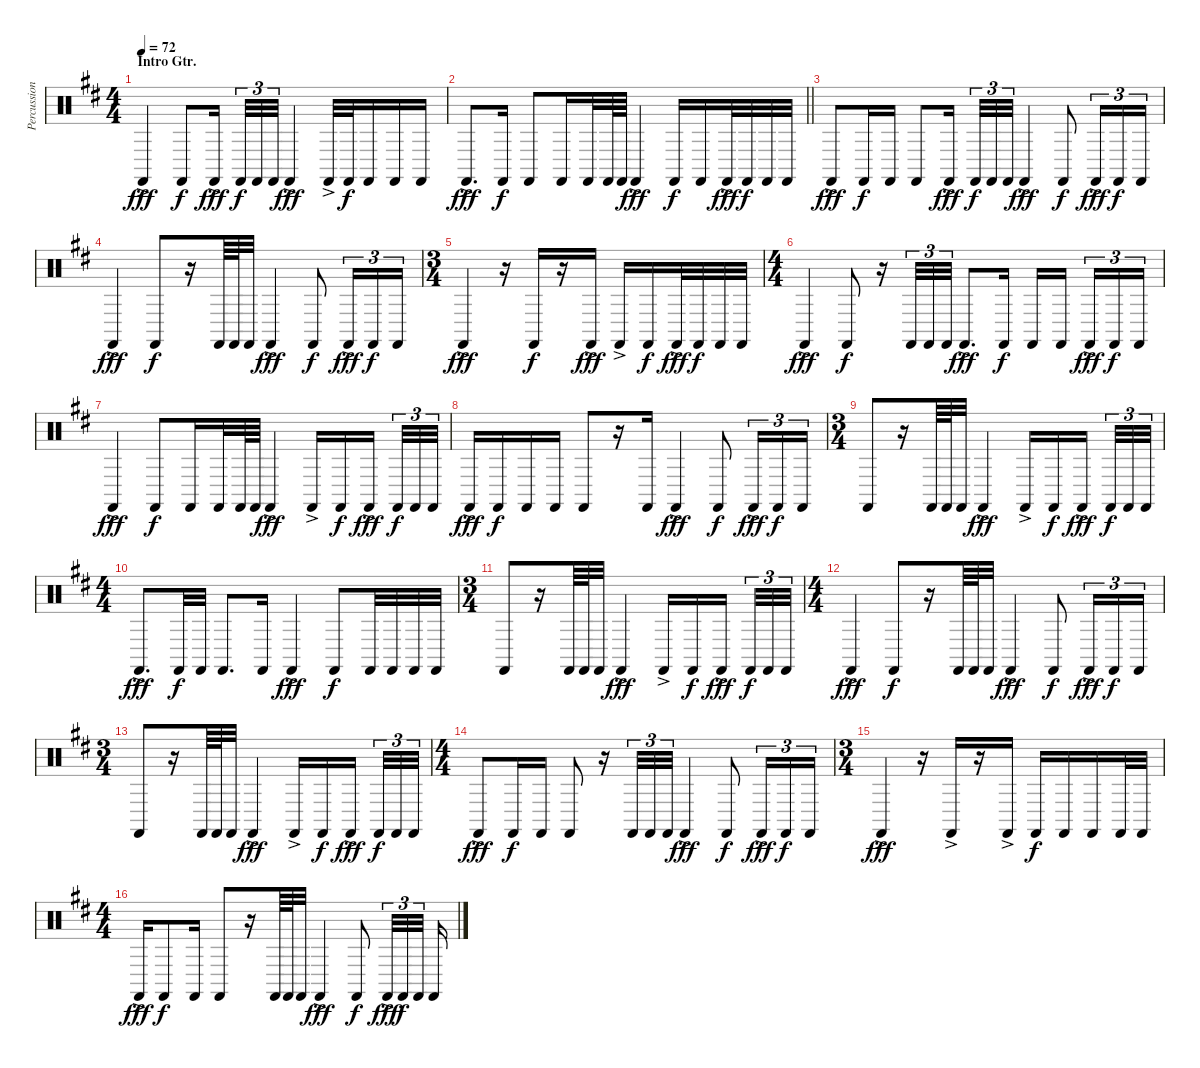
\track ("Percussions" "Percussion") {instrument percussion}
\staff {score}
\articulation defaults
\ts (4 4)
\section ("" "Intro Gtr.")
\tempo 72
\clef neutral
\ks bminor "Castanets (hit)"{ac}.4{dy fff volume 11 balance 8} "Castanets (hit)".8{dy f} "Castanets (hit)"{ac}.16{dy fff} "Castanets (hit)".32{tu (3 2) dy f} "Castanets (hit)".32{tu (3 2)} "Castanets (hit)".32{tu (3 2)} "Castanets (hit)"{ac}.4{dy fff} "Castanets (hit)"{ac}.32 "Castanets (hit)".32{dy f} "Castanets (hit)".16 "Castanets (hit)".16 "Castanets (hit)".16
|
\barLineRight lightlight "Castanets (hit)"{ac}.8{d dy fff} "Castanets (hit)".16{dy f} "Castanets (hit)".8 "Castanets (hit)".16 "Castanets (hit)".32 "Castanets (hit)".64 "Castanets (hit)".64 "Castanets (hit)"{ac}.4{dy fff} "Castanets (hit)".16{dy f} "Castanets (hit)".16 "Castanets (hit)"{ac}.32{dy fff} "Castanets (hit)".32{dy f} "Castanets (hit)".32 "Castanets (hit)".32
|
"Castanets (hit)"{ac}.8{dy fff} "Castanets (hit)".16{dy f} "Castanets (hit)".16 "Castanets (hit)".8 "Castanets (hit)"{ac}.16{dy fff} "Castanets (hit)".32{tu (3 2) dy f} "Castanets (hit)".32{tu (3 2)} "Castanets (hit)".32{tu (3 2)} "Castanets (hit)"{ac}.4{dy fff} "Castanets (hit)".8{dy f} "Castanets (hit)"{ac}.16{tu (3 2) dy fff} "Castanets (hit)".16{tu (3 2) dy f} "Castanets (hit)".16{tu (3 2)} |
"Castanets (hit)"{ac}.4{dy fff} "Castanets (hit)".8{dy f} r.16 "Castanets (hit)".64 "Castanets (hit)".64 "Castanets (hit)".32 "Castanets (hit)"{ac}.4{dy fff} "Castanets (hit)".8{dy f} "Castanets (hit)"{ac}.16{tu (3 2) dy fff} "Castanets (hit)".16{tu (3 2) dy f} "Castanets (hit)".16{tu (3 2)} |
\ts (3 4)
"Castanets (hit)"{ac}.4{dy fff} r.16 "Castanets (hit)".16{dy f} r.16 "Castanets (hit)"{ac}.16{dy fff} "Castanets (hit)"{ac}.16 "Castanets (hit)".16{dy f} "Castanets (hit)"{ac}.32{dy fff} "Castanets (hit)".32{dy f} "Castanets (hit)".32 "Castanets (hit)".32 |
\ts (4 4)
"Castanets (hit)"{ac}.4{dy fff} "Castanets (hit)".8{dy f} r.16 "Castanets (hit)".32{tu (3 2)} "Castanets (hit)".32{tu (3 2)} "Castanets (hit)".32{tu (3 2)} "Castanets (hit)"{ac}.8{d dy fff} "Castanets (hit)".16{dy f} "Castanets (hit)".16 "Castanets (hit)".16 "Castanets (hit)"{ac}.16{tu (3 2) dy fff} "Castanets (hit)".16{tu (3 2) dy f} "Castanets (hit)".16{tu (3 2)} |
"Castanets (hit)"{ac}.4{dy fff} "Castanets (hit)".8{dy f} "Castanets (hit)".16 "Castanets (hit)".32 "Castanets (hit)".64 "Castanets (hit)".64 "Castanets (hit)"{ac}.4{dy fff} "Castanets (hit)"{ac}.16 "Castanets (hit)".16{dy f} "Castanets (hit)"{ac}.16{dy fff} "Castanets (hit)".32{tu (3 2) dy f} "Castanets (hit)".32{tu (3 2)} "Castanets (hit)".32{tu (3 2)} |
"Castanets (hit)"{ac}.16{dy fff} "Castanets (hit)".16{dy f} "Castanets (hit)".16 "Castanets (hit)".16 "Castanets (hit)".8 r.16 "Castanets (hit)".16 "Castanets (hit)"{ac}.4{dy fff} "Castanets (hit)".8{dy f} "Castanets (hit)"{ac}.16{tu (3 2) dy fff} "Castanets (hit)".16{tu (3 2) dy f} "Castanets (hit)".16{tu (3 2)} |
\ts (3 4)
"Castanets (hit)".8 r.16 "Castanets (hit)".64 "Castanets (hit)".64 "Castanets (hit)".32 "Castanets (hit)"{ac}.4{dy fff} "Castanets (hit)"{ac}.16 "Castanets (hit)".16{dy f} "Castanets (hit)"{ac}.16{dy fff} "Castanets (hit)".32{tu (3 2) dy f} "Castanets (hit)".32{tu (3 2)} "Castanets (hit)".32{tu (3 2)} |
\ts (4 4)
"Castanets (hit)"{ac}.8{d dy fff} "Castanets (hit)".32{dy f} "Castanets (hit)".32 "Castanets (hit)".8{d} "Castanets (hit)".16 "Castanets (hit)"{ac}.4{dy fff} "Castanets (hit)".8{dy f} "Castanets (hit)".32 "Castanets (hit)".32 "Castanets (hit)".32 "Castanets (hit)".32 |
\ts (3 4)
"Castanets (hit)".8 r.16 "Castanets (hit)".64 "Castanets (hit)".64 "Castanets (hit)".32 "Castanets (hit)"{ac}.4{dy fff} "Castanets (hit)"{ac}.16 "Castanets (hit)".16{dy f} "Castanets (hit)"{ac}.16{dy fff} "Castanets (hit)".32{tu (3 2) dy f} "Castanets (hit)".32{tu (3 2)} "Castanets (hit)".32{tu (3 2)} |
\ts (4 4)
"Castanets (hit)"{ac}.4{dy fff} "Castanets (hit)".8{dy f} r.16 "Castanets (hit)".64 "Castanets (hit)".64 "Castanets (hit)".32 "Castanets (hit)"{ac}.4{dy fff} "Castanets (hit)".8{dy f} "Castanets (hit)"{ac}.16{tu (3 2) dy fff} "Castanets (hit)".16{tu (3 2) dy f} "Castanets (hit)".16{tu (3 2)} |
\ts (3 4)
"Castanets (hit)".8 r.16 "Castanets (hit)".64 "Castanets (hit)".64 "Castanets (hit)".32 "Castanets (hit)"{ac}.4{dy fff} "Castanets (hit)"{ac}.16 "Castanets (hit)".16{dy f} "Castanets (hit)"{ac}.16{dy fff} "Castanets (hit)".32{tu (3 2) dy f} "Castanets (hit)".32{tu (3 2)} "Castanets (hit)".32{tu (3 2)} |
\ts (4 4)
"Castanets (hit)"{ac}.8{dy fff} "Castanets (hit)".16{dy f} "Castanets (hit)".16 "Castanets (hit)".8 r.16 "Castanets (hit)".32{tu (3 2)} "Castanets (hit)".32{tu (3 2)} "Castanets (hit)".32{tu (3 2)} "Castanets (hit)"{ac}.4{dy fff} "Castanets (hit)".8{dy f} "Castanets (hit)"{ac}.16{tu (3 2) dy fff} "Castanets (hit)".16{tu (3 2) dy f} "Castanets (hit)".16{tu (3 2)} |
\ts (3 4)
"Castanets (hit)"{ac}.4{dy fff} r.16 "Castanets (hit)"{ac}.16 r.16 "Castanets (hit)"{ac}.16 "Castanets (hit)".16{dy f} "Castanets (hit)".16 "Castanets (hit)".16 "Castanets (hit)".32 "Castanets (hit)".32 |
\ts (4 4)
"Castanets (hit)"{ac}.16{dy fff} "Castanets (hit)".8{dy f} "Castanets (hit)".16 "Castanets (hit)".8 r.16 "Castanets (hit)".64 "Castanets (hit)".64 "Castanets (hit)".32 "Castanets (hit)"{ac}.4{dy fff} "Castanets (hit)".8{dy f} "Castanets (hit)"{ac}.32{tu (3 2) dy fff} "Castanets (hit)".32{tu (3 2) dy f} "Castanets (hit)".32{tu (3 2)} "Castanets (hit)".16
